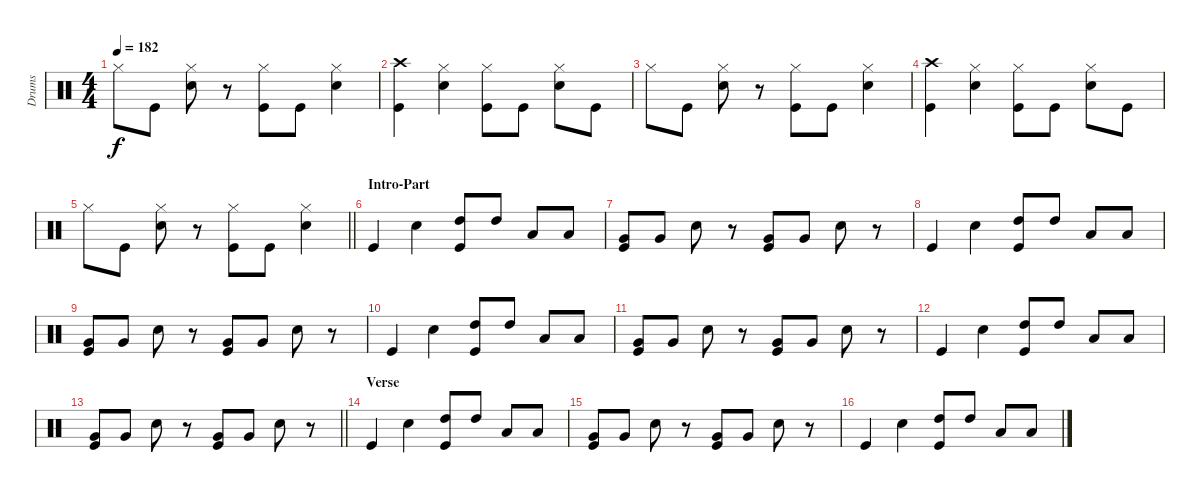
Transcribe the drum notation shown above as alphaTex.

\track ("Drums" "Drums") {instrument percussion}
\staff {score}
\articulation defaults
\ts (4 4)
\tempo 182
\clef neutral
\ks c "Hi-Hat (closed)".8{dy f} "Kick (hit)".8
("Hi-Hat (closed)" "Snare (hit) 2").8 r.8 ("Hi-Hat (closed)" "Kick (hit)").8 "Kick (hit)".8 ("Hi-Hat (closed)" "Snare (hit) 2").4 |
("Crash high (hit)" "Kick (hit)").4 ("Hi-Hat (closed)" "Snare (hit) 2").4 ("Hi-Hat (closed)" "Kick (hit)").8 "Kick (hit)".8 ("Hi-Hat (closed)" "Snare (hit) 2").8 "Kick (hit)".8 |
"Hi-Hat (closed)".8 "Kick (hit)".8 ("Hi-Hat (closed)" "Snare (hit) 2").8 r.8 ("Hi-Hat (closed)" "Kick (hit)").8 "Kick (hit)".8 ("Hi-Hat (closed)" "Snare (hit) 2").4 |
("Crash high (hit)" "Kick (hit)").4 ("Hi-Hat (closed)" "Snare (hit) 2").4 ("Hi-Hat (closed)" "Kick (hit)").8 "Kick (hit)".8 ("Hi-Hat (closed)" "Snare (hit) 2").8 "Kick (hit)".8 |
\barLineRight lightlight "Hi-Hat (closed)".8 "Kick (hit)".8
("Hi-Hat (closed)" "Snare (hit) 2").8 r.8 ("Hi-Hat (closed)" "Kick (hit)").8 "Kick (hit)".8 ("Hi-Hat (closed)" "Snare (hit) 2").4 |
\section ("" "Intro-Part")
"Kick (hit)".4 "Snare (hit) 2".4 ("High Tom (hit)" "Kick (hit)").8 "High Tom (hit)".8 "Low Tom (hit)".8 "Low Tom (hit)".8 |
("Very Low Tom (hit)" "Kick (hit)").8 "Very Low Tom (hit)".8 "Snare (hit) 2".8 r.8 ("Very Low Tom (hit)" "Kick (hit)").8 "Very Low Tom (hit)".8 "Snare (hit) 2".8 r.8 |
"Kick (hit)".4 "Snare (hit) 2".4 ("High Tom (hit)" "Kick (hit)").8 "High Tom (hit)".8 "Low Tom (hit)".8 "Low Tom (hit)".8 |
("Very Low Tom (hit)" "Kick (hit)").8 "Very Low Tom (hit)".8 "Snare (hit) 2".8 r.8 ("Very Low Tom (hit)" "Kick (hit)").8 "Very Low Tom (hit)".8 "Snare (hit) 2".8 r.8 |
"Kick (hit)".4 "Snare (hit) 2".4 ("High Tom (hit)" "Kick (hit)").8 "High Tom (hit)".8 "Low Tom (hit)".8 "Low Tom (hit)".8 |
("Very Low Tom (hit)" "Kick (hit)").8 "Very Low Tom (hit)".8 "Snare (hit) 2".8 r.8 ("Very Low Tom (hit)" "Kick (hit)").8 "Very Low Tom (hit)".8 "Snare (hit) 2".8 r.8 |
"Kick (hit)".4 "Snare (hit) 2".4 ("High Tom (hit)" "Kick (hit)").8 "High Tom (hit)".8 "Low Tom (hit)".8 "Low Tom (hit)".8 |
\barLineRight lightlight
("Very Low Tom (hit)" "Kick (hit)").8 "Very Low Tom (hit)".8 "Snare (hit) 2".8 r.8 ("Very Low Tom (hit)" "Kick (hit)").8 "Very Low Tom (hit)".8 "Snare (hit) 2".8 r.8 |
\section ("" "Verse")
"Kick (hit)".4 "Snare (hit) 2".4 ("High Tom (hit)" "Kick (hit)").8 "High Tom (hit)".8 "Low Tom (hit)".8 "Low Tom (hit)".8 |
("Very Low Tom (hit)" "Kick (hit)").8 "Very Low Tom (hit)".8 "Snare (hit) 2".8 r.8 ("Very Low Tom (hit)" "Kick (hit)").8 "Very Low Tom (hit)".8 "Snare (hit) 2".8 r.8 |
"Kick (hit)".4 "Snare (hit) 2".4 ("High Tom (hit)" "Kick (hit)").8 "High Tom (hit)".8 "Low Tom (hit)".8 "Low Tom (hit)".8
